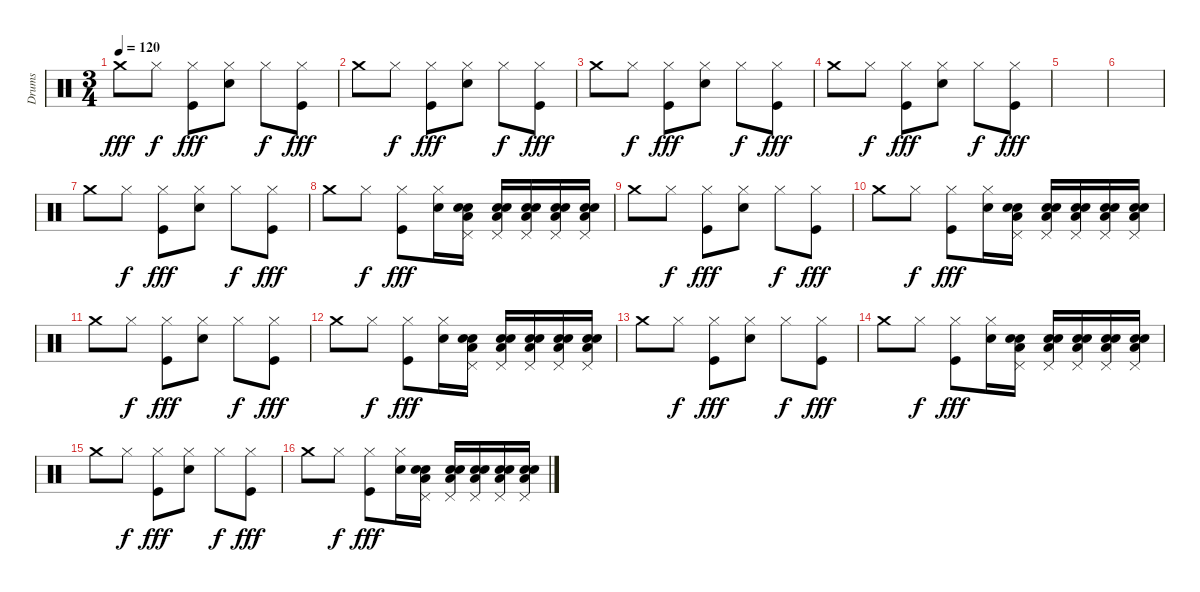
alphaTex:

\track ("Drums" "Drums") {instrument percussion}
\staff {score}
\articulation defaults
\ts (3 4)
\tempo 120
\clef neutral
\ks c "Crash medium (hit)".8{dy fff} "Hi-Hat (closed)".8{dy f}
("Kick (hit)" "Hi-Hat (closed)").8{dy fff} ("Snare (hit) 2" "Hi-Hat (closed)").8 "Hi-Hat (closed)".8{dy f} ("Kick (hit)" "Hi-Hat (closed)").8{dy fff} |
"Crash medium (hit)".8 "Hi-Hat (closed)".8{dy f} ("Kick (hit)" "Hi-Hat (closed)").8{dy fff} ("Snare (hit) 2" "Hi-Hat (closed)").8 "Hi-Hat (closed)".8{dy f} ("Kick (hit)" "Hi-Hat (closed)").8{dy fff} |
"Crash medium (hit)".8 "Hi-Hat (closed)".8{dy f} ("Kick (hit)" "Hi-Hat (closed)").8{dy fff} ("Snare (hit) 2" "Hi-Hat (closed)").8 "Hi-Hat (closed)".8{dy f} ("Kick (hit)" "Hi-Hat (closed)").8{dy fff} |
"Crash medium (hit)".8 "Hi-Hat (closed)".8{dy f} ("Kick (hit)" "Hi-Hat (closed)").8{dy fff} ("Snare (hit) 2" "Hi-Hat (closed)").8 "Hi-Hat (closed)".8{dy f} ("Kick (hit)" "Hi-Hat (closed)").8{dy fff} |
|
|
"Crash medium (hit)".8 "Hi-Hat (closed)".8{dy f} ("Kick (hit)" "Hi-Hat (closed)").8{dy fff} ("Snare (hit) 2" "Hi-Hat (closed)").8 "Hi-Hat (closed)".8{dy f} ("Kick (hit)" "Hi-Hat (closed)").8{dy fff} |
"Crash medium (hit)".8 "Hi-Hat (closed)".8{dy f} ("Kick (hit)" "Hi-Hat (closed)").8{dy fff} ("Snare (hit) 2" "Hi-Hat (closed)").16 ("Low Floor Tom (hit)" "Snare (hit) 2" "Snare (hit) 2" "Pedal Hi-Hat (hit)").16 ("Low Floor Tom (hit)" "Snare (hit) 2" "Snare (hit) 2" "Pedal Hi-Hat (hit)").16 ("Low Floor Tom (hit)" "Snare (hit) 2" "Snare (hit) 2" "Pedal Hi-Hat (hit)").16 ("Low Floor Tom (hit)" "Snare (hit) 2" "Snare (hit) 2" "Pedal Hi-Hat (hit)").16 ("Low Floor Tom (hit)" "Snare (hit) 2" "Snare (hit) 2" "Pedal Hi-Hat (hit)").16 |
"Crash medium (hit)".8 "Hi-Hat (closed)".8{dy f} ("Kick (hit)" "Hi-Hat (closed)").8{dy fff} ("Snare (hit) 2" "Hi-Hat (closed)").8 "Hi-Hat (closed)".8{dy f} ("Kick (hit)" "Hi-Hat (closed)").8{dy fff} |
"Crash medium (hit)".8 "Hi-Hat (closed)".8{dy f} ("Kick (hit)" "Hi-Hat (closed)").8{dy fff} ("Snare (hit) 2" "Hi-Hat (closed)").16 ("Low Floor Tom (hit)" "Snare (hit) 2" "Snare (hit) 2" "Pedal Hi-Hat (hit)").16 ("Low Floor Tom (hit)" "Snare (hit) 2" "Snare (hit) 2" "Pedal Hi-Hat (hit)").16 ("Low Floor Tom (hit)" "Snare (hit) 2" "Snare (hit) 2" "Pedal Hi-Hat (hit)").16 ("Low Floor Tom (hit)" "Snare (hit) 2" "Snare (hit) 2" "Pedal Hi-Hat (hit)").16 ("Low Floor Tom (hit)" "Snare (hit) 2" "Snare (hit) 2" "Pedal Hi-Hat (hit)").16 |
"Crash medium (hit)".8 "Hi-Hat (closed)".8{dy f} ("Kick (hit)" "Hi-Hat (closed)").8{dy fff} ("Snare (hit) 2" "Hi-Hat (closed)").8 "Hi-Hat (closed)".8{dy f} ("Kick (hit)" "Hi-Hat (closed)").8{dy fff} |
"Crash medium (hit)".8 "Hi-Hat (closed)".8{dy f} ("Kick (hit)" "Hi-Hat (closed)").8{dy fff} ("Snare (hit) 2" "Hi-Hat (closed)").16 ("Low Floor Tom (hit)" "Snare (hit) 2" "Snare (hit) 2" "Pedal Hi-Hat (hit)").16 ("Low Floor Tom (hit)" "Snare (hit) 2" "Snare (hit) 2" "Pedal Hi-Hat (hit)").16 ("Low Floor Tom (hit)" "Snare (hit) 2" "Snare (hit) 2" "Pedal Hi-Hat (hit)").16 ("Low Floor Tom (hit)" "Snare (hit) 2" "Snare (hit) 2" "Pedal Hi-Hat (hit)").16 ("Low Floor Tom (hit)" "Snare (hit) 2" "Snare (hit) 2" "Pedal Hi-Hat (hit)").16 |
"Crash medium (hit)".8 "Hi-Hat (closed)".8{dy f} ("Kick (hit)" "Hi-Hat (closed)").8{dy fff} ("Snare (hit) 2" "Hi-Hat (closed)").8 "Hi-Hat (closed)".8{dy f} ("Kick (hit)" "Hi-Hat (closed)").8{dy fff} |
"Crash medium (hit)".8 "Hi-Hat (closed)".8{dy f} ("Kick (hit)" "Hi-Hat (closed)").8{dy fff} ("Snare (hit) 2" "Hi-Hat (closed)").16 ("Low Floor Tom (hit)" "Snare (hit) 2" "Snare (hit) 2" "Pedal Hi-Hat (hit)").16 ("Low Floor Tom (hit)" "Snare (hit) 2" "Snare (hit) 2" "Pedal Hi-Hat (hit)").16 ("Low Floor Tom (hit)" "Snare (hit) 2" "Snare (hit) 2" "Pedal Hi-Hat (hit)").16 ("Low Floor Tom (hit)" "Snare (hit) 2" "Snare (hit) 2" "Pedal Hi-Hat (hit)").16 ("Low Floor Tom (hit)" "Snare (hit) 2" "Snare (hit) 2" "Pedal Hi-Hat (hit)").16 |
"Crash medium (hit)".8 "Hi-Hat (closed)".8{dy f} ("Kick (hit)" "Hi-Hat (closed)").8{dy fff} ("Snare (hit) 2" "Hi-Hat (closed)").8 "Hi-Hat (closed)".8{dy f} ("Kick (hit)" "Hi-Hat (closed)").8{dy fff} |
"Crash medium (hit)".8 "Hi-Hat (closed)".8{dy f} ("Kick (hit)" "Hi-Hat (closed)").8{dy fff} ("Snare (hit) 2" "Hi-Hat (closed)").16 ("Low Floor Tom (hit)" "Snare (hit) 2" "Snare (hit) 2" "Pedal Hi-Hat (hit)").16 ("Low Floor Tom (hit)" "Snare (hit) 2" "Snare (hit) 2" "Pedal Hi-Hat (hit)").16 ("Low Floor Tom (hit)" "Snare (hit) 2" "Snare (hit) 2" "Pedal Hi-Hat (hit)").16 ("Low Floor Tom (hit)" "Snare (hit) 2" "Snare (hit) 2" "Pedal Hi-Hat (hit)").16 ("Low Floor Tom (hit)" "Snare (hit) 2" "Snare (hit) 2" "Pedal Hi-Hat (hit)").16
